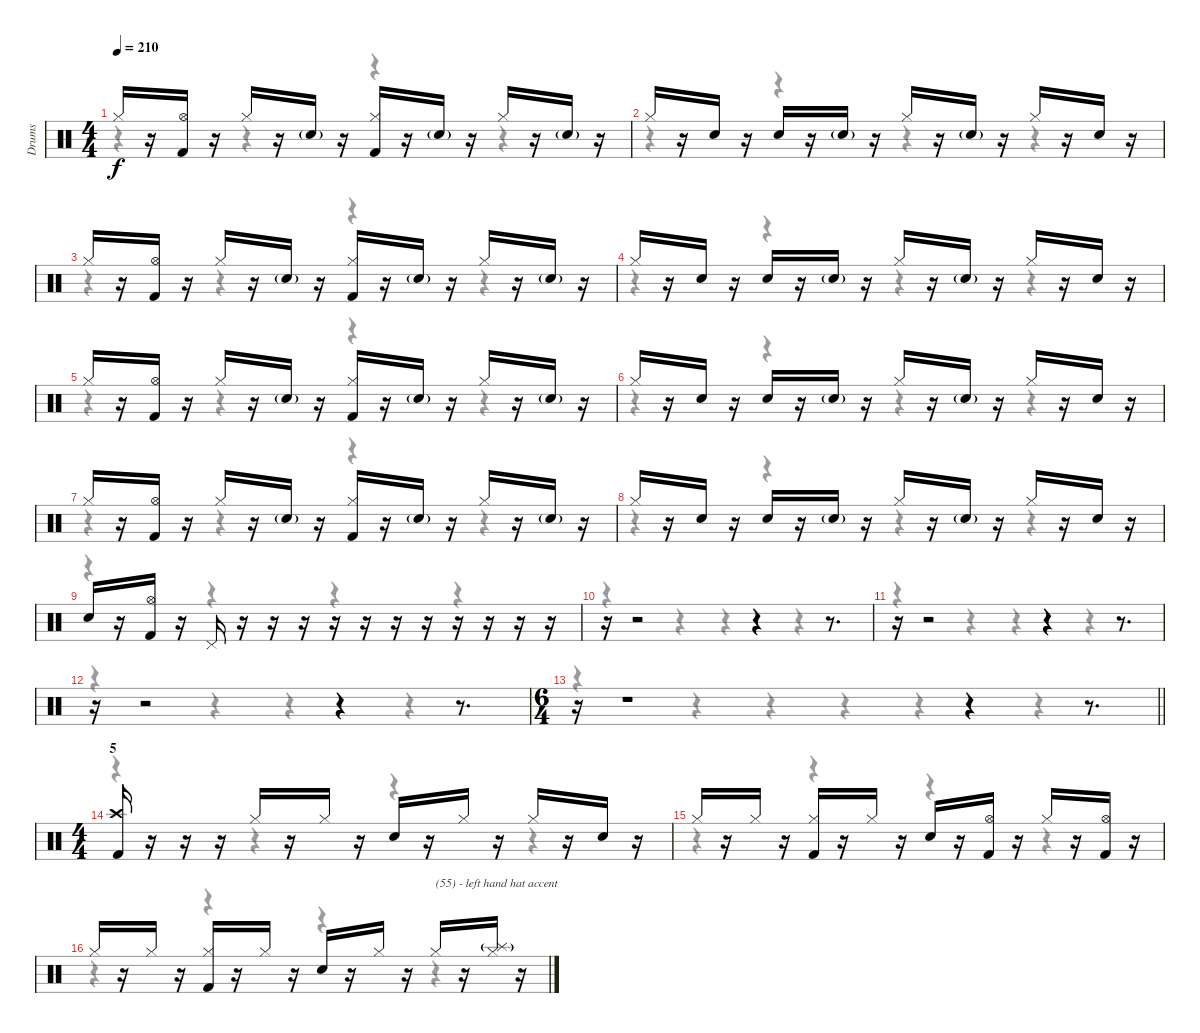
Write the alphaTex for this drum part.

\track ("Drums" "Drums") {instrument percussion}
\staff {score}
\articulation defaults
\voice
\ts (4 4)
\tempo 210
\clef neutral
\ks c "Hi-Hat (closed)".16{dy f}
r.16 ("Kick (hit) 2" "Hi-Hat (open)").16 r.16 "Hi-Hat (closed)".16 r.16 "Snare (hit) 2"{g}.16 r.16 ("Kick (hit) 2" "Hi-Hat (closed)").16 r.16 "Snare (hit) 2"{g}.16 r.16 "Hi-Hat (closed)".16 r.16 "Snare (hit) 2"{g}.16 r.16 |
"Hi-Hat (closed)".16 r.16 "Snare (hit) 2".16 r.16 "Snare (hit) 2".16 r.16 "Snare (hit) 2"{g}.16 r.16 "Hi-Hat (closed)".16 r.16 "Snare (hit) 2"{g}.16 r.16 "Hi-Hat (closed)".16 r.16 "Snare (hit) 2".16 r.16 |
"Hi-Hat (closed)".16 r.16 ("Kick (hit) 2" "Hi-Hat (open)").16 r.16 "Hi-Hat (closed)".16 r.16 "Snare (hit) 2"{g}.16 r.16 ("Kick (hit) 2" "Hi-Hat (closed)").16 r.16 "Snare (hit) 2"{g}.16 r.16 "Hi-Hat (closed)".16 r.16 "Snare (hit) 2"{g}.16 r.16 |
"Hi-Hat (closed)".16 r.16 "Snare (hit) 2".16 r.16 "Snare (hit) 2".16 r.16 "Snare (hit) 2"{g}.16 r.16 "Hi-Hat (closed)".16 r.16 "Snare (hit) 2"{g}.16 r.16 "Hi-Hat (closed)".16 r.16 "Snare (hit) 2".16 r.16 |
"Hi-Hat (closed)".16 r.16 ("Kick (hit) 2" "Hi-Hat (open)").16 r.16 "Hi-Hat (closed)".16 r.16 "Snare (hit) 2"{g}.16 r.16 ("Kick (hit) 2" "Hi-Hat (closed)").16 r.16 "Snare (hit) 2"{g}.16 r.16 "Hi-Hat (closed)".16 r.16 "Snare (hit) 2"{g}.16 r.16 |
"Hi-Hat (closed)".16 r.16 "Snare (hit) 2".16 r.16 "Snare (hit) 2".16 r.16 "Snare (hit) 2"{g}.16 r.16 "Hi-Hat (closed)".16 r.16 "Snare (hit) 2"{g}.16 r.16 "Hi-Hat (closed)".16 r.16 "Snare (hit) 2".16 r.16 |
"Hi-Hat (closed)".16 r.16 ("Kick (hit) 2" "Hi-Hat (open)").16 r.16 "Hi-Hat (closed)".16 r.16 "Snare (hit) 2"{g}.16 r.16 ("Kick (hit) 2" "Hi-Hat (closed)").16 r.16 "Snare (hit) 2"{g}.16 r.16 "Hi-Hat (closed)".16 r.16 "Snare (hit) 2"{g}.16 r.16 |
"Hi-Hat (closed)".16 r.16 "Snare (hit) 2".16 r.16 "Snare (hit) 2".16 r.16 "Snare (hit) 2"{g}.16 r.16 "Hi-Hat (closed)".16 r.16 "Snare (hit) 2"{g}.16 r.16 "Hi-Hat (closed)".16 r.16 "Snare (hit) 2".16 r.16 |
"Snare (hit) 2".16 r.16 ("Kick (hit) 2" "Hi-Hat (open)").16 r.16 "Pedal Hi-Hat (hit)".16 r.16 r.16 r.16 r.16 r.16 r.16 r.16 r.16 r.16 r.16 r.16 |
r.16 r.2 r.4 r.8{d} |
r.16 r.2 r.4 r.8{d} |
r.16 r.2 r.4 r.8{d} |
\ts (6 4)
\barLineRight lightlight
r.16 r.1 r.4 r.8{d} |
\ts (4 4)
\section ("" "5")
("Kick (hit) 2" "Crash high (hit)").16 r.16 r.16 r.16 "Hi-Hat (closed)".16 r.16 "Hi-Hat (closed)".16 r.16 "Snare (hit) 2".16 r.16 "Hi-Hat (closed)".16 r.16 "Hi-Hat (closed)".16 r.16 "Snare (hit) 2".16 r.16 |
"Hi-Hat (closed)".16 r.16 "Hi-Hat (closed)".16 r.16 ("Kick (hit) 2" "Hi-Hat (closed)").16 r.16 "Hi-Hat (closed)".16 r.16 "Snare (hit) 2".16 r.16 ("Kick (hit) 2" "Hi-Hat (open)").16 r.16 "Hi-Hat (closed)".16 r.16 ("Kick (hit) 2" "Hi-Hat (open)").16 r.16 |
"Hi-Hat (closed)".16 r.16 "Hi-Hat (closed)".16 r.16 ("Kick (hit) 2" "Hi-Hat (closed)").16 r.16 "Hi-Hat (closed)".16 r.16 "Snare (hit) 2".16 r.16 "Hi-Hat (closed)".16 r.16 "Hi-Hat (closed)".16{txt "(55) - left hand hat accent"} r.16 ("Splash (hit)"{g} "Hi-Hat (closed)").16 r.16
\voice
\clef neutral
\ottava regular
\simile none
\ks c
r.4{dy mf} r.4 r.4 r.4 |
r.4 r.4 r.4 r.4 |
r.4 r.4 r.4 r.4 |
r.4 r.4 r.4 r.4 |
r.4 r.4 r.4 r.4 |
r.4 r.4 r.4 r.4 |
r.4 r.4 r.4 r.4 |
r.4 r.4 r.4 r.4 |
r.4 r.4 r.4 r.4 |
r.4 r.4 r.4 r.4 |
r.4 r.4 r.4 r.4 |
r.4 r.4 r.4 r.4 |
\barLineRight lightlight
r.4 r.4 r.4 r.4 r.4 r.4 |
r.4 r.4 r.4 r.4 |
r.4 r.4 r.4 r.4 |
r.4 r.4 r.4 r.4
